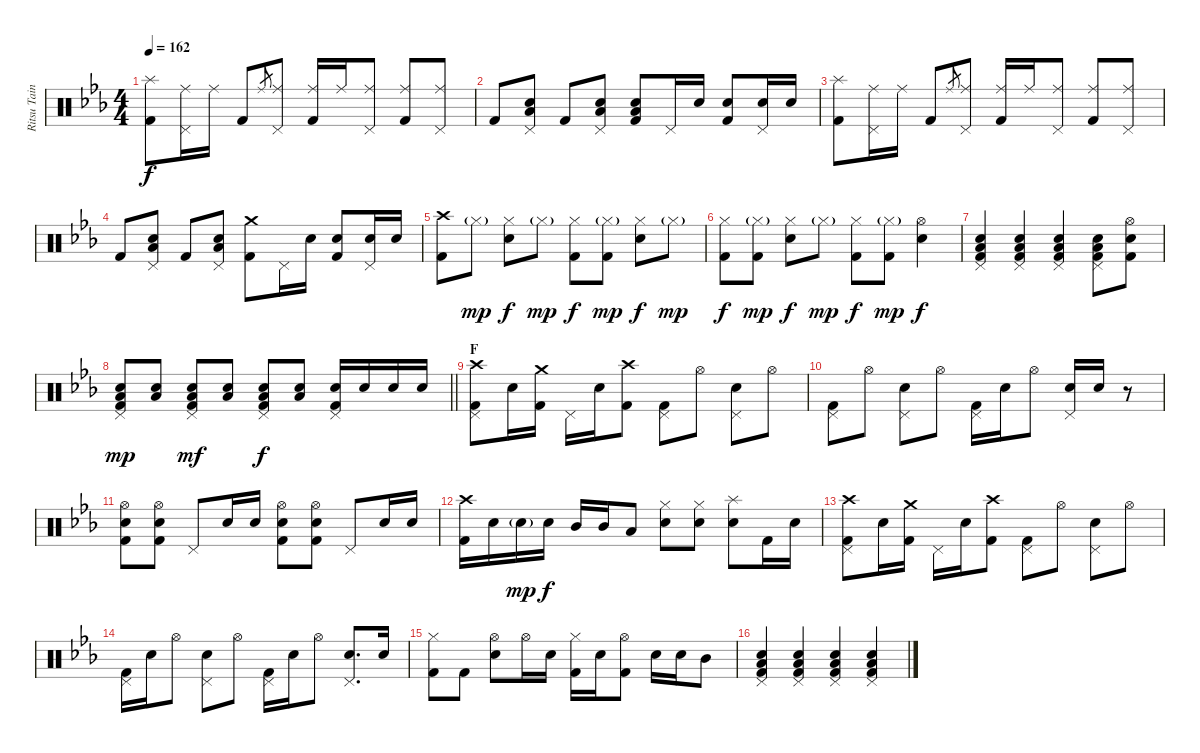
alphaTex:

\track ("Ritsu Tainaka" "Ritsu Tain") {instrument percussion}
\staff {score}
\articulation defaults
\ts (4 4)
\tempo 162
\clef neutral
\ks eb
("Splash (hit)" "Kick (hit) 2").8{dy f} ("Ride (middle)" "Pedal Hi-Hat (hit)").16 "Ride (middle)".16 "Kick (hit) 2".8 "Ride (middle)".8{gr} ("Ride (middle)" "Pedal Hi-Hat (hit)").8 ("Ride (middle)" "Kick (hit) 2").16 "Ride (middle)".16 ("Ride (middle)" "Pedal Hi-Hat (hit)").8 ("Ride (middle)" "Kick (hit) 2").8 ("Ride (middle)" "Pedal Hi-Hat (hit)").8 |
"Kick (hit) 2".8 ("Pedal Hi-Hat (hit)" "Electric Snare (hit)" "Low Floor Tom (hit)").8 "Kick (hit) 2".8 ("Pedal Hi-Hat (hit)" "Electric Snare (hit)" "Low Floor Tom (hit)").8 ("Electric Snare (hit)" "Low Floor Tom (hit)" "Kick (hit) 2").8 "Pedal Hi-Hat (hit)".16 "Electric Snare (hit)".16 ("Electric Snare (hit)" "Kick (hit) 2").8 ("Pedal Hi-Hat (hit)" "Electric Snare (hit)").16 "Electric Snare (hit)".16 |
("Splash (hit)" "Kick (hit) 2").8 ("Ride (middle)" "Pedal Hi-Hat (hit)").16 "Ride (middle)".16 "Kick (hit) 2".8 "Ride (middle)".8{gr} ("Ride (middle)" "Pedal Hi-Hat (hit)").8 ("Ride (middle)" "Kick (hit) 2").16 "Ride (middle)".16 ("Ride (middle)" "Pedal Hi-Hat (hit)").8 ("Ride (middle)" "Kick (hit) 2").8 ("Ride (middle)" "Pedal Hi-Hat (hit)").8 |
"Kick (hit) 2".8 ("Pedal Hi-Hat (hit)" "Electric Snare (hit)" "Low Floor Tom (hit)").8 "Kick (hit) 2".8 ("Pedal Hi-Hat (hit)" "Electric Snare (hit)" "Low Floor Tom (hit)").8 ("Crash medium (hit)" "Kick (hit) 2").8 "Pedal Hi-Hat (hit)".16 "Electric Snare (hit)".16 ("Electric Snare (hit)" "Kick (hit) 2").8 ("Pedal Hi-Hat (hit)" "Electric Snare (hit)").16 "Electric Snare (hit)".16 |
("Crash high (hit)" "Kick (hit) 2").8 "Hi-Hat (closed)"{g}.8{dy mp} ("Hi-Hat (closed)" "Electric Snare (hit)").8{dy f} "Hi-Hat (closed)"{g}.8{dy mp} ("Hi-Hat (closed)" "Kick (hit) 2").8{dy f} ("Hi-Hat (closed)"{g} "Kick (hit) 2").8{dy mp} ("Hi-Hat (closed)" "Electric Snare (hit)").8{dy f} "Hi-Hat (closed)"{g}.8{dy mp} |
("Hi-Hat (closed)" "Kick (hit) 2").8{dy f} ("Hi-Hat (closed)"{g} "Kick (hit) 2").8{dy mp} ("Hi-Hat (closed)" "Electric Snare (hit)").8{dy f} "Hi-Hat (closed)"{g}.8{dy mp} ("Hi-Hat (closed)" "Kick (hit) 2").8{dy f} ("Hi-Hat (closed)"{g} "Kick (hit) 2").8{dy mp} ("Hi-Hat (open)" "Electric Snare (hit)").4{dy f} |
("Pedal Hi-Hat (hit)" "Electric Snare (hit)" "Low Floor Tom (hit)" "Kick (hit) 2").4 ("Pedal Hi-Hat (hit)" "Electric Snare (hit)" "Low Floor Tom (hit)" "Kick (hit) 2").4 ("Pedal Hi-Hat (hit)" "Electric Snare (hit)" "Low Floor Tom (hit)" "Kick (hit) 2").4 ("Pedal Hi-Hat (hit)" "Electric Snare (hit)" "Low Floor Tom (hit)" "Kick (hit) 2").8 ("Hi-Hat (open)" "Electric Snare (hit)" "Kick (hit) 2").8 |
\barLineRight lightlight
("Pedal Hi-Hat (hit)" "Electric Snare (hit)" "Low Floor Tom (hit)" "Kick (hit) 2").8{dy mp} ("Electric Snare (hit)" "Low Floor Tom (hit)").8 ("Pedal Hi-Hat (hit)" "Electric Snare (hit)" "Low Floor Tom (hit)" "Kick (hit) 2").8{dy mf} ("Electric Snare (hit)" "Low Floor Tom (hit)").8 ("Pedal Hi-Hat (hit)" "Electric Snare (hit)" "Low Floor Tom (hit)" "Kick (hit) 2").8{dy f} ("Electric Snare (hit)" "Low Floor Tom (hit)").8 ("Pedal Hi-Hat (hit)" "Electric Snare (hit)" "Kick (hit) 2").16 "Electric Snare (hit)".16 "Electric Snare (hit)".16 "Electric Snare (hit)".16 |
\section ("" "F")
("Crash high (hit)" "Pedal Hi-Hat (hit)" "Kick (hit) 2").8 "Electric Snare (hit)".16 ("Crash medium (hit)" "Kick (hit) 2").16 "Pedal Hi-Hat (hit)".16 "Electric Snare (hit)".16 ("Crash high (hit)" "Kick (hit) 2").8 ("Pedal Hi-Hat (hit)" "Kick (hit) 2").8 "Hi-Hat (open)".8 ("Pedal Hi-Hat (hit)" "Electric Snare (hit)").8 "Hi-Hat (open)".8 |
("Pedal Hi-Hat (hit)" "Kick (hit) 2").8 "Hi-Hat (open)".8 ("Pedal Hi-Hat (hit)" "Electric Snare (hit)").8 "Hi-Hat (open)".8 ("Pedal Hi-Hat (hit)" "Kick (hit) 2").16 "Electric Snare (hit)".16 "Hi-Hat (open)".8 ("Pedal Hi-Hat (hit)" "Electric Snare (hit)").16 "Electric Snare (hit)".16 r.8 |
("Hi-Hat (open)" "Electric Snare (hit)" "Kick (hit) 2").8 ("Hi-Hat (open)" "Electric Snare (hit)" "Kick (hit) 2").8 "Pedal Hi-Hat (hit)".8 "Electric Snare (hit)".16 "Electric Snare (hit)".16 ("Hi-Hat (open)" "Electric Snare (hit)" "Kick (hit) 2").8 ("Hi-Hat (open)" "Electric Snare (hit)" "Kick (hit) 2").8 "Pedal Hi-Hat (hit)".8 "Electric Snare (hit)".16 "Electric Snare (hit)".16 |
("Crash high (hit)" "Kick (hit) 2").16 "Electric Snare (hit)".16 "Electric Snare (hit)"{g}.16{dy mp} "Electric Snare (hit)".16{dy f} "Mid Tom (hit)".16 "Mid Tom (hit)".16 "Low Tom (hit)".8 ("Hi-Hat (closed)" "Electric Snare (hit)").8 ("Hi-Hat (closed)" "Electric Snare (hit)").8 ("Splash (hit)" "Electric Snare (hit)").8 "Kick (hit) 2".16 "Electric Snare (hit)".16 |
("Crash high (hit)" "Pedal Hi-Hat (hit)" "Kick (hit) 2").8 "Electric Snare (hit)".16 ("Crash medium (hit)" "Kick (hit) 2").16 "Pedal Hi-Hat (hit)".16 "Electric Snare (hit)".16 ("Crash high (hit)" "Kick (hit) 2").8 ("Pedal Hi-Hat (hit)" "Kick (hit) 2").8 "Hi-Hat (open)".8 ("Pedal Hi-Hat (hit)" "Electric Snare (hit)").8 "Hi-Hat (open)".8 |
("Pedal Hi-Hat (hit)" "Kick (hit) 2").16 "Electric Snare (hit)".16 "Hi-Hat (open)".8 ("Pedal Hi-Hat (hit)" "Electric Snare (hit)").8 "Hi-Hat (open)".8 ("Pedal Hi-Hat (hit)" "Kick (hit) 2").16 "Electric Snare (hit)".16 "Hi-Hat (open)".8 ("Pedal Hi-Hat (hit)" "Electric Snare (hit)").8{d} "Electric Snare (hit)".16 |
("Hi-Hat (closed)" "Kick (hit) 2").8 "Kick (hit) 2".8 ("Hi-Hat (open)" "Electric Snare (hit)").8 "Hi-Hat (open)".16 "Electric Snare (hit)".16 ("Hi-Hat (closed)" "Kick (hit) 2").16 "Electric Snare (hit)".16 ("Hi-Hat (open)" "Kick (hit) 2").8 "Electric Snare (hit)".16 "Electric Snare (hit)".16 "Mid Tom (hit)".8 |
("Pedal Hi-Hat (hit)" "Electric Snare (hit)" "Low Floor Tom (hit)" "Kick (hit) 2").4 ("Pedal Hi-Hat (hit)" "Electric Snare (hit)" "Low Floor Tom (hit)" "Kick (hit) 2").4 ("Pedal Hi-Hat (hit)" "Electric Snare (hit)" "Low Floor Tom (hit)" "Kick (hit) 2").4 ("Pedal Hi-Hat (hit)" "Electric Snare (hit)" "Low Floor Tom (hit)" "Kick (hit) 2").4
